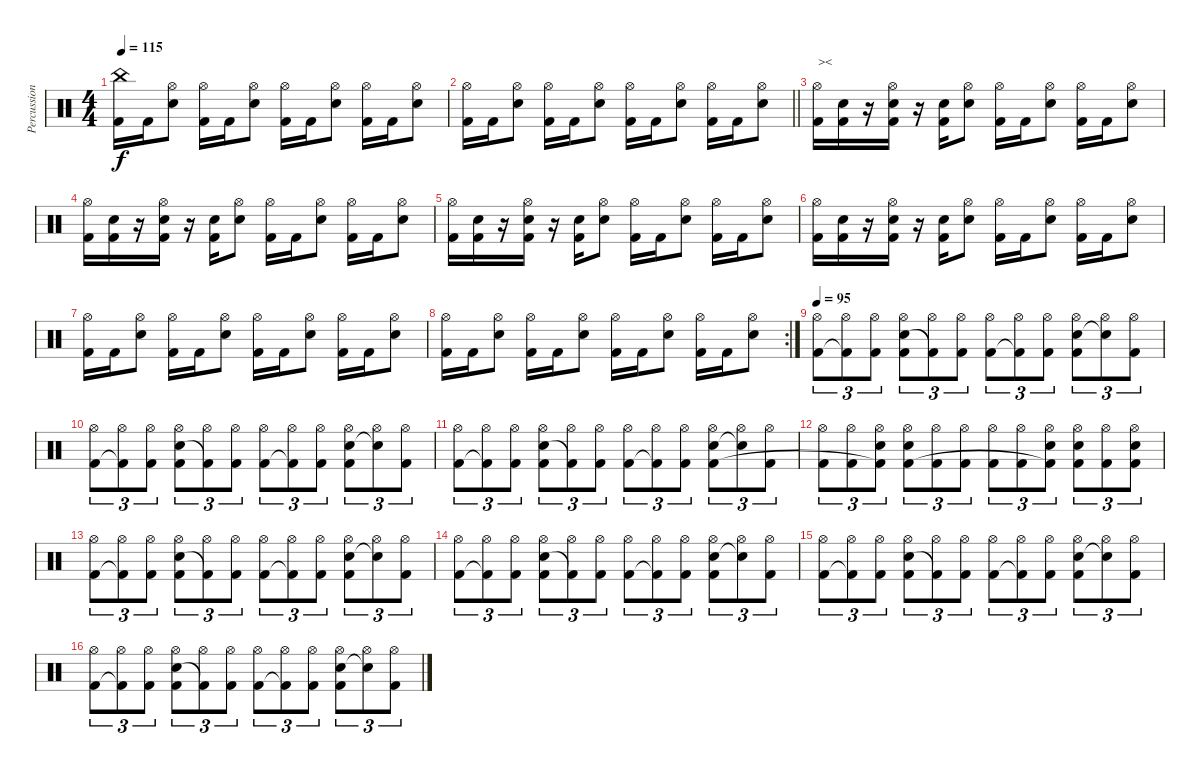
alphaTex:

\track ("Percussion" "Percussion") {instrument percussion}
\staff {score}
\articulation defaults
\ts (4 4)
\tempo 115
\clef neutral
\ks c
("China (hit)" "Kick (hit) 2").16{dy f} "Kick (hit) 2".16 ("Hi-Hat (open)" "Snare (hit) 2").8 ("Hi-Hat (open)" "Kick (hit) 2").16 "Kick (hit) 2".16 ("Hi-Hat (open)" "Snare (hit) 2").8 ("Hi-Hat (open)" "Kick (hit) 2").16 "Kick (hit) 2".16 ("Hi-Hat (open)" "Snare (hit) 2").8 ("Hi-Hat (open)" "Kick (hit) 2").16 "Kick (hit) 2".16 ("Hi-Hat (open)" "Snare (hit) 2").8 |
\barLineRight lightlight
("Hi-Hat (open)" "Kick (hit) 2").16 "Kick (hit) 2".16 ("Hi-Hat (open)" "Snare (hit) 2").8 ("Hi-Hat (open)" "Kick (hit) 2").16 "Kick (hit) 2".16 ("Hi-Hat (open)" "Snare (hit) 2").8 ("Hi-Hat (open)" "Kick (hit) 2").16 "Kick (hit) 2".16 ("Hi-Hat (open)" "Snare (hit) 2").8 ("Hi-Hat (open)" "Kick (hit) 2").16 "Kick (hit) 2".16 ("Hi-Hat (open)" "Snare (hit) 2").8 |
("Hi-Hat (open)" "Kick (hit) 2").16{txt "><"} ("Snare (hit) 2" "Kick (hit) 2").16 r.16 ("Hi-Hat (open)" "Snare (hit) 2" "Kick (hit) 2").16 r.16 ("Snare (hit) 2" "Kick (hit) 2").16 ("Hi-Hat (open)" "Snare (hit) 2").8 ("Hi-Hat (open)" "Kick (hit) 2").16 "Kick (hit) 2".16 ("Hi-Hat (open)" "Snare (hit) 2").8 ("Hi-Hat (open)" "Kick (hit) 2").16 "Kick (hit) 2".16 ("Hi-Hat (open)" "Snare (hit) 2").8 |
("Hi-Hat (open)" "Kick (hit) 2").16 ("Snare (hit) 2" "Kick (hit) 2").16 r.16 ("Hi-Hat (open)" "Snare (hit) 2" "Kick (hit) 2").16 r.16 ("Snare (hit) 2" "Kick (hit) 2").16 ("Hi-Hat (open)" "Snare (hit) 2").8 ("Hi-Hat (open)" "Kick (hit) 2").16 "Kick (hit) 2".16 ("Hi-Hat (open)" "Snare (hit) 2").8 ("Hi-Hat (open)" "Kick (hit) 2").16 "Kick (hit) 2".16 ("Hi-Hat (open)" "Snare (hit) 2").8 |
("Hi-Hat (open)" "Kick (hit) 2").16 ("Snare (hit) 2" "Kick (hit) 2").16 r.16 ("Hi-Hat (open)" "Snare (hit) 2" "Kick (hit) 2").16 r.16 ("Snare (hit) 2" "Kick (hit) 2").16 ("Hi-Hat (open)" "Snare (hit) 2").8 ("Hi-Hat (open)" "Kick (hit) 2").16 "Kick (hit) 2".16 ("Hi-Hat (open)" "Snare (hit) 2").8 ("Hi-Hat (open)" "Kick (hit) 2").16 "Kick (hit) 2".16 ("Hi-Hat (open)" "Snare (hit) 2").8 |
("Hi-Hat (open)" "Kick (hit) 2").16 ("Snare (hit) 2" "Kick (hit) 2").16 r.16 ("Hi-Hat (open)" "Snare (hit) 2" "Kick (hit) 2").16 r.16 ("Snare (hit) 2" "Kick (hit) 2").16 ("Hi-Hat (open)" "Snare (hit) 2").8 ("Hi-Hat (open)" "Kick (hit) 2").16 "Kick (hit) 2".16 ("Hi-Hat (open)" "Snare (hit) 2").8 ("Hi-Hat (open)" "Kick (hit) 2").16 "Kick (hit) 2".16 ("Hi-Hat (open)" "Snare (hit) 2").8 |
("Hi-Hat (open)" "Kick (hit) 2").16 "Kick (hit) 2".16 ("Hi-Hat (open)" "Snare (hit) 2").8 ("Hi-Hat (open)" "Kick (hit) 2").16 "Kick (hit) 2".16 ("Hi-Hat (open)" "Snare (hit) 2").8 ("Hi-Hat (open)" "Kick (hit) 2").16 "Kick (hit) 2".16 ("Hi-Hat (open)" "Snare (hit) 2").8 ("Hi-Hat (open)" "Kick (hit) 2").16 "Kick (hit) 2".16 ("Hi-Hat (open)" "Snare (hit) 2").8 |
\rc 2
("Hi-Hat (open)" "Kick (hit) 2").16 "Kick (hit) 2".16 ("Hi-Hat (open)" "Snare (hit) 2").8 ("Hi-Hat (open)" "Kick (hit) 2").16 "Kick (hit) 2".16 ("Hi-Hat (open)" "Snare (hit) 2").8 ("Hi-Hat (open)" "Kick (hit) 2").16 "Kick (hit) 2".16 ("Hi-Hat (open)" "Snare (hit) 2").8 ("Hi-Hat (open)" "Kick (hit) 2").16 "Kick (hit) 2".16 ("Hi-Hat (open)" "Snare (hit) 2").8 |
\tempo 95
("Hi-Hat (open)" "Kick (hit) 2").8{tu (3 2)} ("Hi-Hat (open)" "Kick (hit) 2"{t}).8{tu (3 2)} ("Hi-Hat (open)" "Kick (hit) 2").8{tu (3 2)} ("Hi-Hat (open)" "Snare (hit) 2" "Kick (hit) 2").8{tu (3 2)} ("Hi-Hat (open)" "Kick (hit) 2"{t}).8{tu (3 2)} ("Hi-Hat (open)" "Kick (hit) 2").8{tu (3 2)} ("Hi-Hat (open)" "Kick (hit) 2").8{tu (3 2)} ("Hi-Hat (open)" "Kick (hit) 2"{t}).8{tu (3 2)} ("Hi-Hat (open)" "Kick (hit) 2").8{tu (3 2)} ("Hi-Hat (open)" "Snare (hit) 2" "Kick (hit) 2").8{tu (3 2)} ("Hi-Hat (open)" "Snare (hit)"{t}).8{tu (3 2)} ("Hi-Hat (open)" "Kick (hit) 2").8{tu (3 2)} |
("Hi-Hat (open)" "Kick (hit) 2").8{tu (3 2)} ("Hi-Hat (open)" "Kick (hit) 2"{t}).8{tu (3 2)} ("Hi-Hat (open)" "Kick (hit) 2").8{tu (3 2)} ("Hi-Hat (open)" "Snare (hit) 2" "Kick (hit) 2").8{tu (3 2)} ("Hi-Hat (open)" "Kick (hit) 2"{t}).8{tu (3 2)} ("Hi-Hat (open)" "Kick (hit) 2").8{tu (3 2)} ("Hi-Hat (open)" "Kick (hit) 2").8{tu (3 2)} ("Hi-Hat (open)" "Kick (hit) 2"{t}).8{tu (3 2)} ("Hi-Hat (open)" "Kick (hit) 2").8{tu (3 2)} ("Hi-Hat (open)" "Snare (hit) 2" "Kick (hit) 2").8{tu (3 2)} ("Hi-Hat (open)" "Snare (hit)"{t}).8{tu (3 2)} ("Hi-Hat (open)" "Kick (hit) 2").8{tu (3 2)} |
("Hi-Hat (open)" "Kick (hit) 2").8{tu (3 2)} ("Hi-Hat (open)" "Kick (hit) 2"{t}).8{tu (3 2)} ("Hi-Hat (open)" "Kick (hit) 2").8{tu (3 2)} ("Hi-Hat (open)" "Snare (hit) 2" "Kick (hit) 2").8{tu (3 2)} ("Hi-Hat (open)" "Kick (hit) 2"{t}).8{tu (3 2)} ("Hi-Hat (open)" "Kick (hit) 2").8{tu (3 2)} ("Hi-Hat (open)" "Kick (hit) 2").8{tu (3 2)} ("Hi-Hat (open)" "Kick (hit) 2"{t}).8{tu (3 2)} ("Hi-Hat (open)" "Kick (hit) 2").8{tu (3 2)} ("Hi-Hat (open)" "Snare (hit) 2" "Kick (hit) 2").8{tu (3 2)} ("Hi-Hat (open)" "Snare (hit)"{t}).8{tu (3 2)} ("Hi-Hat (open)" "Kick (hit) 2").8{tu (3 2)} |
("Hi-Hat (open)" "Kick (hit) 2").8{tu (3 2)} ("Hi-Hat (open)" "Kick (hit) 2").8{tu (3 2)} ("Hi-Hat (open)" "Snare (hit) 2" "Kick (hit) 2"{t}).8{tu (3 2)} ("Hi-Hat (open)" "Snare (hit) 2" "Kick (hit) 2").8{tu (3 2)} ("Hi-Hat (open)" "Kick (hit) 2").8{tu (3 2)} ("Hi-Hat (open)" "Kick (hit) 2").8{tu (3 2)} ("Hi-Hat (open)" "Kick (hit) 2").8{tu (3 2)} ("Hi-Hat (open)" "Kick (hit) 2").8{tu (3 2)} ("Hi-Hat (open)" "Snare (hit) 2" "Kick (hit) 2"{t}).8{tu (3 2)} ("Hi-Hat (open)" "Snare (hit) 2" "Kick (hit) 2").8{tu (3 2)} ("Hi-Hat (open)" "Kick (hit) 2").8{tu (3 2)} ("Hi-Hat (open)" "Snare (hit) 2" "Kick (hit) 2").8{tu (3 2)} |
("Hi-Hat (open)" "Kick (hit) 2").8{tu (3 2)} ("Hi-Hat (open)" "Kick (hit) 2"{t}).8{tu (3 2)} ("Hi-Hat (open)" "Kick (hit) 2").8{tu (3 2)} ("Hi-Hat (open)" "Snare (hit) 2" "Kick (hit) 2").8{tu (3 2)} ("Hi-Hat (open)" "Kick (hit) 2"{t}).8{tu (3 2)} ("Hi-Hat (open)" "Kick (hit) 2").8{tu (3 2)} ("Hi-Hat (open)" "Kick (hit) 2").8{tu (3 2)} ("Hi-Hat (open)" "Kick (hit) 2"{t}).8{tu (3 2)} ("Hi-Hat (open)" "Kick (hit) 2").8{tu (3 2)} ("Hi-Hat (open)" "Snare (hit) 2" "Kick (hit) 2").8{tu (3 2)} ("Hi-Hat (open)" "Snare (hit)"{t}).8{tu (3 2)} ("Hi-Hat (open)" "Kick (hit) 2").8{tu (3 2)} |
("Hi-Hat (open)" "Kick (hit) 2").8{tu (3 2)} ("Hi-Hat (open)" "Kick (hit) 2"{t}).8{tu (3 2)} ("Hi-Hat (open)" "Kick (hit) 2").8{tu (3 2)} ("Hi-Hat (open)" "Snare (hit) 2" "Kick (hit) 2").8{tu (3 2)} ("Hi-Hat (open)" "Kick (hit) 2"{t}).8{tu (3 2)} ("Hi-Hat (open)" "Kick (hit) 2").8{tu (3 2)} ("Hi-Hat (open)" "Kick (hit) 2").8{tu (3 2)} ("Hi-Hat (open)" "Kick (hit) 2"{t}).8{tu (3 2)} ("Hi-Hat (open)" "Kick (hit) 2").8{tu (3 2)} ("Hi-Hat (open)" "Snare (hit) 2" "Kick (hit) 2").8{tu (3 2)} ("Hi-Hat (open)" "Snare (hit)"{t}).8{tu (3 2)} ("Hi-Hat (open)" "Kick (hit) 2").8{tu (3 2)} |
("Hi-Hat (open)" "Kick (hit) 2").8{tu (3 2)} ("Hi-Hat (open)" "Kick (hit) 2"{t}).8{tu (3 2)} ("Hi-Hat (open)" "Kick (hit) 2").8{tu (3 2)} ("Hi-Hat (open)" "Snare (hit) 2" "Kick (hit) 2").8{tu (3 2)} ("Hi-Hat (open)" "Kick (hit) 2"{t}).8{tu (3 2)} ("Hi-Hat (open)" "Kick (hit) 2").8{tu (3 2)} ("Hi-Hat (open)" "Kick (hit) 2").8{tu (3 2)} ("Hi-Hat (open)" "Kick (hit) 2"{t}).8{tu (3 2)} ("Hi-Hat (open)" "Kick (hit) 2").8{tu (3 2)} ("Hi-Hat (open)" "Snare (hit) 2" "Kick (hit) 2").8{tu (3 2)} ("Hi-Hat (open)" "Snare (hit)"{t}).8{tu (3 2)} ("Hi-Hat (open)" "Kick (hit) 2").8{tu (3 2)} |
("Hi-Hat (open)" "Kick (hit) 2").8{tu (3 2)} ("Hi-Hat (open)" "Kick (hit) 2"{t}).8{tu (3 2)} ("Hi-Hat (open)" "Kick (hit) 2").8{tu (3 2)} ("Hi-Hat (open)" "Snare (hit) 2" "Kick (hit) 2").8{tu (3 2)} ("Hi-Hat (open)" "Kick (hit) 2"{t}).8{tu (3 2)} ("Hi-Hat (open)" "Kick (hit) 2").8{tu (3 2)} ("Hi-Hat (open)" "Kick (hit) 2").8{tu (3 2)} ("Hi-Hat (open)" "Kick (hit) 2"{t}).8{tu (3 2)} ("Hi-Hat (open)" "Kick (hit) 2").8{tu (3 2)} ("Hi-Hat (open)" "Snare (hit) 2" "Kick (hit) 2").8{tu (3 2)} ("Hi-Hat (open)" "Snare (hit)"{t}).8{tu (3 2)} ("Hi-Hat (open)" "Kick (hit) 2").8{tu (3 2)}
